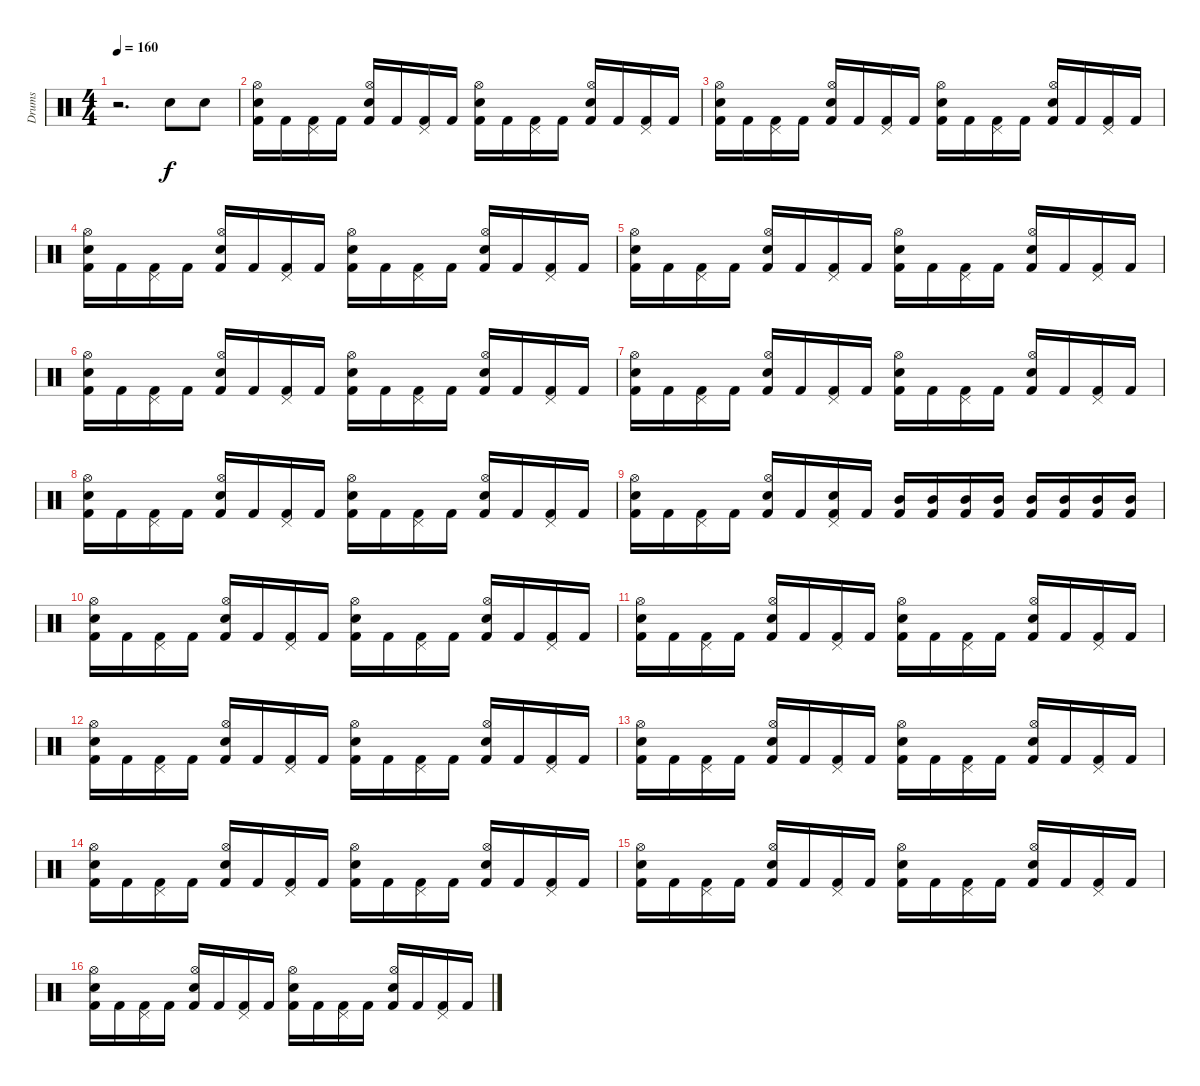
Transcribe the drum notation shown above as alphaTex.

\track ("Drums" "Drums") {instrument percussion}
\staff {score}
\articulation defaults
\ts (4 4)
\tempo 160
\clef neutral
\ks c
r.2{d dy f} "Snare (hit) 2".8 "Snare (hit) 2".8 |
("Hi-Hat (open)" "Electric Snare (hit)" "Kick (hit) 2").16 "Kick (hit) 2".16 ("Pedal Hi-Hat (hit)" "Kick (hit) 2").16 "Kick (hit) 2".16 ("Hi-Hat (open)" "Snare (hit) 2" "Kick (hit) 2").16 "Kick (hit) 2".16 ("Pedal Hi-Hat (hit)" "Kick (hit) 2").16 "Kick (hit) 2".16 ("Hi-Hat (open)" "Electric Snare (hit)" "Kick (hit) 2").16 "Kick (hit) 2".16 ("Pedal Hi-Hat (hit)" "Kick (hit) 2").16 "Kick (hit) 2".16 ("Hi-Hat (open)" "Snare (hit) 2" "Kick (hit) 2").16 "Kick (hit) 2".16 ("Pedal Hi-Hat (hit)" "Kick (hit) 2").16 "Kick (hit) 2".16 |
("Hi-Hat (open)" "Electric Snare (hit)" "Kick (hit) 2").16 "Kick (hit) 2".16 ("Pedal Hi-Hat (hit)" "Kick (hit) 2").16 "Kick (hit) 2".16 ("Hi-Hat (open)" "Snare (hit) 2" "Kick (hit) 2").16 "Kick (hit) 2".16 ("Pedal Hi-Hat (hit)" "Kick (hit) 2").16 "Kick (hit) 2".16 ("Hi-Hat (open)" "Electric Snare (hit)" "Kick (hit) 2").16 "Kick (hit) 2".16 ("Pedal Hi-Hat (hit)" "Kick (hit) 2").16 "Kick (hit) 2".16 ("Hi-Hat (open)" "Snare (hit) 2" "Kick (hit) 2").16 "Kick (hit) 2".16 ("Pedal Hi-Hat (hit)" "Kick (hit) 2").16 "Kick (hit) 2".16 |
("Hi-Hat (open)" "Electric Snare (hit)" "Kick (hit) 2").16 "Kick (hit) 2".16 ("Pedal Hi-Hat (hit)" "Kick (hit) 2").16 "Kick (hit) 2".16 ("Hi-Hat (open)" "Snare (hit) 2" "Kick (hit) 2").16 "Kick (hit) 2".16 ("Pedal Hi-Hat (hit)" "Kick (hit) 2").16 "Kick (hit) 2".16 ("Hi-Hat (open)" "Electric Snare (hit)" "Kick (hit) 2").16 "Kick (hit) 2".16 ("Pedal Hi-Hat (hit)" "Kick (hit) 2").16 "Kick (hit) 2".16 ("Hi-Hat (open)" "Snare (hit) 2" "Kick (hit) 2").16 "Kick (hit) 2".16 ("Pedal Hi-Hat (hit)" "Kick (hit) 2").16 "Kick (hit) 2".16 |
("Hi-Hat (open)" "Electric Snare (hit)" "Kick (hit) 2").16 "Kick (hit) 2".16 ("Pedal Hi-Hat (hit)" "Kick (hit) 2").16 "Kick (hit) 2".16 ("Hi-Hat (open)" "Snare (hit) 2" "Kick (hit) 2").16 "Kick (hit) 2".16 ("Pedal Hi-Hat (hit)" "Kick (hit) 2").16 "Kick (hit) 2".16 ("Hi-Hat (open)" "Electric Snare (hit)" "Kick (hit) 2").16 "Kick (hit) 2".16 ("Pedal Hi-Hat (hit)" "Kick (hit) 2").16 "Kick (hit) 2".16 ("Hi-Hat (open)" "Snare (hit) 2" "Kick (hit) 2").16 "Kick (hit) 2".16 ("Pedal Hi-Hat (hit)" "Kick (hit) 2").16 "Kick (hit) 2".16 |
("Hi-Hat (open)" "Electric Snare (hit)" "Kick (hit) 2").16 "Kick (hit) 2".16 ("Pedal Hi-Hat (hit)" "Kick (hit) 2").16 "Kick (hit) 2".16 ("Hi-Hat (open)" "Snare (hit) 2" "Kick (hit) 2").16 "Kick (hit) 2".16 ("Pedal Hi-Hat (hit)" "Kick (hit) 2").16 "Kick (hit) 2".16 ("Hi-Hat (open)" "Electric Snare (hit)" "Kick (hit) 2").16 "Kick (hit) 2".16 ("Pedal Hi-Hat (hit)" "Kick (hit) 2").16 "Kick (hit) 2".16 ("Hi-Hat (open)" "Snare (hit) 2" "Kick (hit) 2").16 "Kick (hit) 2".16 ("Pedal Hi-Hat (hit)" "Kick (hit) 2").16 "Kick (hit) 2".16 |
("Hi-Hat (open)" "Electric Snare (hit)" "Kick (hit) 2").16 "Kick (hit) 2".16 ("Pedal Hi-Hat (hit)" "Kick (hit) 2").16 "Kick (hit) 2".16 ("Hi-Hat (open)" "Snare (hit) 2" "Kick (hit) 2").16 "Kick (hit) 2".16 ("Pedal Hi-Hat (hit)" "Kick (hit) 2").16 "Kick (hit) 2".16 ("Hi-Hat (open)" "Electric Snare (hit)" "Kick (hit) 2").16 "Kick (hit) 2".16 ("Pedal Hi-Hat (hit)" "Kick (hit) 2").16 "Kick (hit) 2".16 ("Hi-Hat (open)" "Snare (hit) 2" "Kick (hit) 2").16 "Kick (hit) 2".16 ("Pedal Hi-Hat (hit)" "Kick (hit) 2").16 "Kick (hit) 2".16 |
("Hi-Hat (open)" "Electric Snare (hit)" "Kick (hit) 2").16 "Kick (hit) 2".16 ("Pedal Hi-Hat (hit)" "Kick (hit) 2").16 "Kick (hit) 2".16 ("Hi-Hat (open)" "Snare (hit) 2" "Kick (hit) 2").16 "Kick (hit) 2".16 ("Pedal Hi-Hat (hit)" "Kick (hit) 2").16 "Kick (hit) 2".16 ("Hi-Hat (open)" "Electric Snare (hit)" "Kick (hit) 2").16 "Kick (hit) 2".16 ("Pedal Hi-Hat (hit)" "Kick (hit) 2").16 "Kick (hit) 2".16 ("Hi-Hat (open)" "Snare (hit) 2" "Kick (hit) 2").16 "Kick (hit) 2".16 ("Pedal Hi-Hat (hit)" "Kick (hit) 2").16 "Kick (hit) 2".16 |
("Hi-Hat (open)" "Electric Snare (hit)" "Kick (hit) 2").16 "Kick (hit) 2".16 ("Pedal Hi-Hat (hit)" "Kick (hit) 2").16 "Kick (hit) 2".16 ("Hi-Hat (open)" "Snare (hit) 2" "Kick (hit) 2").16 "Kick (hit) 2".16 ("Pedal Hi-Hat (hit)" "Electric Snare (hit)" "Kick (hit) 2").16 "Kick (hit) 2".16 ("Mid Tom (hit)" "Kick (hit) 2").16 ("Mid Tom (hit)" "Kick (hit) 2").16 ("Mid Tom (hit)" "Kick (hit) 2").16 ("Mid Tom (hit)" "Kick (hit) 2").16 ("Mid Tom (hit)" "Kick (hit) 2").16 ("Mid Tom (hit)" "Kick (hit) 2").16 ("Mid Tom (hit)" "Kick (hit) 2").16 ("Mid Tom (hit)" "Kick (hit) 2").16 |
("Hi-Hat (open)" "Electric Snare (hit)" "Kick (hit) 2").16 "Kick (hit) 2".16 ("Pedal Hi-Hat (hit)" "Kick (hit) 2").16 "Kick (hit) 2".16 ("Hi-Hat (open)" "Snare (hit) 2" "Kick (hit) 2").16 "Kick (hit) 2".16 ("Pedal Hi-Hat (hit)" "Kick (hit) 2").16 "Kick (hit) 2".16 ("Hi-Hat (open)" "Electric Snare (hit)" "Kick (hit) 2").16 "Kick (hit) 2".16 ("Pedal Hi-Hat (hit)" "Kick (hit) 2").16 "Kick (hit) 2".16 ("Hi-Hat (open)" "Snare (hit) 2" "Kick (hit) 2").16 "Kick (hit) 2".16 ("Pedal Hi-Hat (hit)" "Kick (hit) 2").16 "Kick (hit) 2".16 |
("Hi-Hat (open)" "Electric Snare (hit)" "Kick (hit) 2").16 "Kick (hit) 2".16 ("Pedal Hi-Hat (hit)" "Kick (hit) 2").16 "Kick (hit) 2".16 ("Hi-Hat (open)" "Snare (hit) 2" "Kick (hit) 2").16 "Kick (hit) 2".16 ("Pedal Hi-Hat (hit)" "Kick (hit) 2").16 "Kick (hit) 2".16 ("Hi-Hat (open)" "Electric Snare (hit)" "Kick (hit) 2").16 "Kick (hit) 2".16 ("Pedal Hi-Hat (hit)" "Kick (hit) 2").16 "Kick (hit) 2".16 ("Hi-Hat (open)" "Snare (hit) 2" "Kick (hit) 2").16 "Kick (hit) 2".16 ("Pedal Hi-Hat (hit)" "Kick (hit) 2").16 "Kick (hit) 2".16 |
("Hi-Hat (open)" "Electric Snare (hit)" "Kick (hit) 2").16 "Kick (hit) 2".16 ("Pedal Hi-Hat (hit)" "Kick (hit) 2").16 "Kick (hit) 2".16 ("Hi-Hat (open)" "Snare (hit) 2" "Kick (hit) 2").16 "Kick (hit) 2".16 ("Pedal Hi-Hat (hit)" "Kick (hit) 2").16 "Kick (hit) 2".16 ("Hi-Hat (open)" "Electric Snare (hit)" "Kick (hit) 2").16 "Kick (hit) 2".16 ("Pedal Hi-Hat (hit)" "Kick (hit) 2").16 "Kick (hit) 2".16 ("Hi-Hat (open)" "Snare (hit) 2" "Kick (hit) 2").16 "Kick (hit) 2".16 ("Pedal Hi-Hat (hit)" "Kick (hit) 2").16 "Kick (hit) 2".16 |
("Hi-Hat (open)" "Electric Snare (hit)" "Kick (hit) 2").16 "Kick (hit) 2".16 ("Pedal Hi-Hat (hit)" "Kick (hit) 2").16 "Kick (hit) 2".16 ("Hi-Hat (open)" "Snare (hit) 2" "Kick (hit) 2").16 "Kick (hit) 2".16 ("Pedal Hi-Hat (hit)" "Kick (hit) 2").16 "Kick (hit) 2".16 ("Hi-Hat (open)" "Electric Snare (hit)" "Kick (hit) 2").16 "Kick (hit) 2".16 ("Pedal Hi-Hat (hit)" "Kick (hit) 2").16 "Kick (hit) 2".16 ("Hi-Hat (open)" "Snare (hit) 2" "Kick (hit) 2").16 "Kick (hit) 2".16 ("Pedal Hi-Hat (hit)" "Kick (hit) 2").16 "Kick (hit) 2".16 |
("Hi-Hat (open)" "Electric Snare (hit)" "Kick (hit) 2").16 "Kick (hit) 2".16 ("Pedal Hi-Hat (hit)" "Kick (hit) 2").16 "Kick (hit) 2".16 ("Hi-Hat (open)" "Snare (hit) 2" "Kick (hit) 2").16 "Kick (hit) 2".16 ("Pedal Hi-Hat (hit)" "Kick (hit) 2").16 "Kick (hit) 2".16 ("Hi-Hat (open)" "Electric Snare (hit)" "Kick (hit) 2").16 "Kick (hit) 2".16 ("Pedal Hi-Hat (hit)" "Kick (hit) 2").16 "Kick (hit) 2".16 ("Hi-Hat (open)" "Snare (hit) 2" "Kick (hit) 2").16 "Kick (hit) 2".16 ("Pedal Hi-Hat (hit)" "Kick (hit) 2").16 "Kick (hit) 2".16 |
("Hi-Hat (open)" "Electric Snare (hit)" "Kick (hit) 2").16 "Kick (hit) 2".16 ("Pedal Hi-Hat (hit)" "Kick (hit) 2").16 "Kick (hit) 2".16 ("Hi-Hat (open)" "Snare (hit) 2" "Kick (hit) 2").16 "Kick (hit) 2".16 ("Pedal Hi-Hat (hit)" "Kick (hit) 2").16 "Kick (hit) 2".16 ("Hi-Hat (open)" "Electric Snare (hit)" "Kick (hit) 2").16 "Kick (hit) 2".16 ("Pedal Hi-Hat (hit)" "Kick (hit) 2").16 "Kick (hit) 2".16 ("Hi-Hat (open)" "Snare (hit) 2" "Kick (hit) 2").16 "Kick (hit) 2".16 ("Pedal Hi-Hat (hit)" "Kick (hit) 2").16 "Kick (hit) 2".16 |
("Hi-Hat (open)" "Electric Snare (hit)" "Kick (hit) 2").16 "Kick (hit) 2".16 ("Pedal Hi-Hat (hit)" "Kick (hit) 2").16 "Kick (hit) 2".16 ("Hi-Hat (open)" "Snare (hit) 2" "Kick (hit) 2").16 "Kick (hit) 2".16 ("Pedal Hi-Hat (hit)" "Kick (hit) 2").16 "Kick (hit) 2".16 ("Hi-Hat (open)" "Electric Snare (hit)" "Kick (hit) 2").16 "Kick (hit) 2".16 ("Pedal Hi-Hat (hit)" "Kick (hit) 2").16 "Kick (hit) 2".16 ("Hi-Hat (open)" "Snare (hit) 2" "Kick (hit) 2").16 "Kick (hit) 2".16 ("Pedal Hi-Hat (hit)" "Kick (hit) 2").16 "Kick (hit) 2".16
